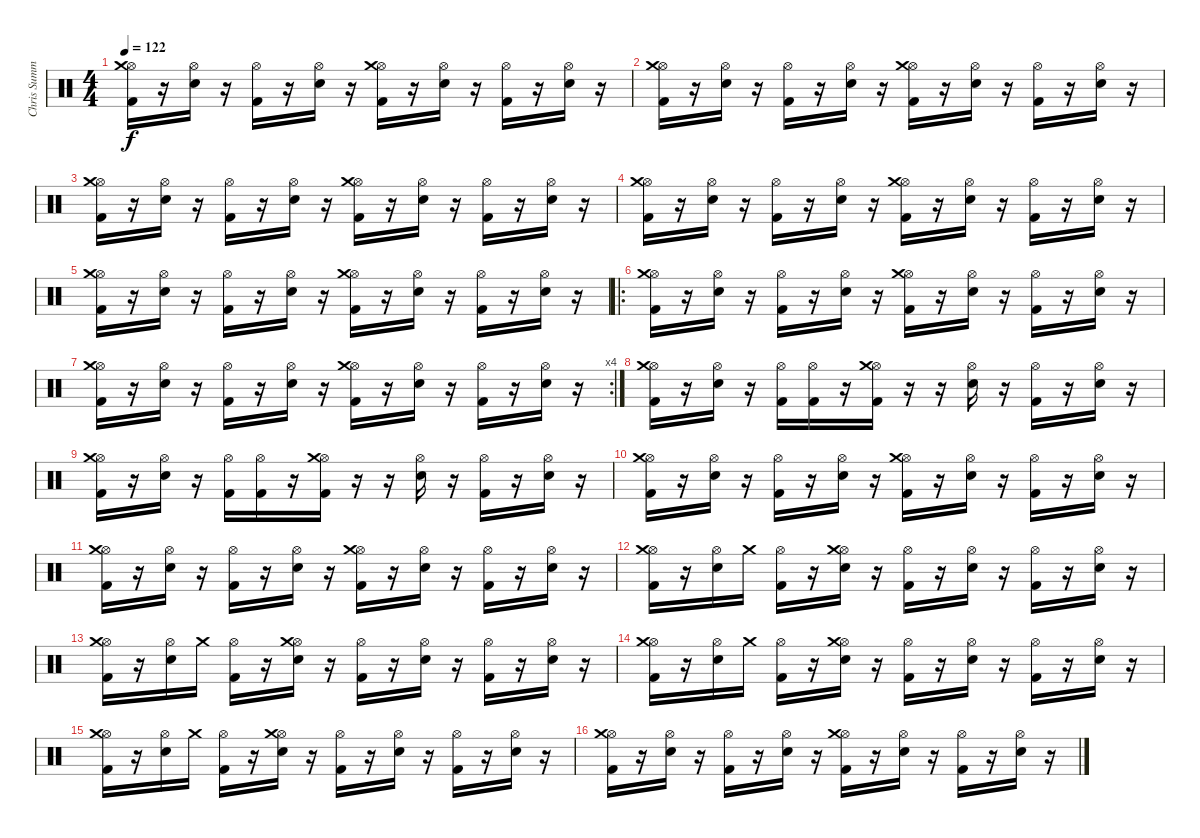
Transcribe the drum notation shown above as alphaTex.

\track ("Chris Summers" "Chris Summ") {instrument percussion}
\staff {score}
\articulation defaults
\ts (4 4)
\tempo 122
\clef neutral
\ks c
("Kick (hit) 2" "Hi-Hat (open)" "Crash medium (hit)").16{dy f} r.16 ("Electric Snare (hit)" "Hi-Hat (open)").16 r.16 ("Kick (hit) 2" "Hi-Hat (open)").16 r.16 ("Electric Snare (hit)" "Hi-Hat (open)").16 r.16 ("Kick (hit) 2" "Hi-Hat (open)" "Crash medium (hit)").16 r.16 ("Electric Snare (hit)" "Hi-Hat (open)").16 r.16 ("Kick (hit) 2" "Hi-Hat (open)").16 r.16 ("Electric Snare (hit)" "Hi-Hat (open)").16 r.16 |
("Kick (hit) 2" "Hi-Hat (open)" "Crash medium (hit)").16 r.16 ("Electric Snare (hit)" "Hi-Hat (open)").16 r.16 ("Kick (hit) 2" "Hi-Hat (open)").16 r.16 ("Electric Snare (hit)" "Hi-Hat (open)").16 r.16 ("Kick (hit) 2" "Hi-Hat (open)" "Crash medium (hit)").16 r.16 ("Electric Snare (hit)" "Hi-Hat (open)").16 r.16 ("Kick (hit) 2" "Hi-Hat (open)").16 r.16 ("Electric Snare (hit)" "Hi-Hat (open)").16 r.16 |
("Kick (hit) 2" "Hi-Hat (open)" "Crash medium (hit)").16 r.16 ("Electric Snare (hit)" "Hi-Hat (open)").16 r.16 ("Kick (hit) 2" "Hi-Hat (open)").16 r.16 ("Electric Snare (hit)" "Hi-Hat (open)").16 r.16 ("Kick (hit) 2" "Hi-Hat (open)" "Crash medium (hit)").16 r.16 ("Electric Snare (hit)" "Hi-Hat (open)").16 r.16 ("Kick (hit) 2" "Hi-Hat (open)").16 r.16 ("Electric Snare (hit)" "Hi-Hat (open)").16 r.16 |
("Kick (hit) 2" "Hi-Hat (open)" "Crash medium (hit)").16 r.16 ("Electric Snare (hit)" "Hi-Hat (open)").16 r.16 ("Kick (hit) 2" "Hi-Hat (open)").16 r.16 ("Electric Snare (hit)" "Hi-Hat (open)").16 r.16 ("Kick (hit) 2" "Hi-Hat (open)" "Crash medium (hit)").16 r.16 ("Electric Snare (hit)" "Hi-Hat (open)").16 r.16 ("Kick (hit) 2" "Hi-Hat (open)").16 r.16 ("Electric Snare (hit)" "Hi-Hat (open)").16 r.16 |
("Kick (hit) 2" "Hi-Hat (open)" "Crash medium (hit)").16 r.16 ("Electric Snare (hit)" "Hi-Hat (open)").16 r.16 ("Kick (hit) 2" "Hi-Hat (open)").16 r.16 ("Electric Snare (hit)" "Hi-Hat (open)").16 r.16 ("Kick (hit) 2" "Hi-Hat (open)" "Crash medium (hit)").16 r.16 ("Electric Snare (hit)" "Hi-Hat (open)").16 r.16 ("Kick (hit) 2" "Hi-Hat (open)").16 r.16 ("Electric Snare (hit)" "Hi-Hat (open)").16 r.16 |
\ro
("Kick (hit) 2" "Hi-Hat (open)" "Crash medium (hit)").16 r.16 ("Electric Snare (hit)" "Hi-Hat (open)").16 r.16 ("Kick (hit) 2" "Hi-Hat (open)").16 r.16 ("Electric Snare (hit)" "Hi-Hat (open)").16 r.16 ("Kick (hit) 2" "Hi-Hat (open)" "Crash medium (hit)").16 r.16 ("Electric Snare (hit)" "Hi-Hat (open)").16 r.16 ("Kick (hit) 2" "Hi-Hat (open)").16 r.16 ("Electric Snare (hit)" "Hi-Hat (open)").16 r.16 |
\rc 4
("Kick (hit) 2" "Hi-Hat (open)" "Crash medium (hit)").16 r.16 ("Electric Snare (hit)" "Hi-Hat (open)").16 r.16 ("Kick (hit) 2" "Hi-Hat (open)").16 r.16 ("Electric Snare (hit)" "Hi-Hat (open)").16 r.16 ("Kick (hit) 2" "Hi-Hat (open)" "Crash medium (hit)").16 r.16 ("Electric Snare (hit)" "Hi-Hat (open)").16 r.16 ("Kick (hit) 2" "Hi-Hat (open)").16 r.16 ("Electric Snare (hit)" "Hi-Hat (open)").16 r.16 |
("Kick (hit) 2" "Hi-Hat (open)" "Crash medium (hit)").16 r.16 ("Electric Snare (hit)" "Hi-Hat (open)").16 r.16 ("Kick (hit) 2" "Hi-Hat (open)").16 ("Kick (hit) 2" "Hi-Hat (open)").16 r.16 ("Kick (hit) 2" "Hi-Hat (open)" "Crash medium (hit)").16 r.16 r.16 ("Electric Snare (hit)" "Hi-Hat (open)").16 r.16 ("Kick (hit) 2" "Hi-Hat (open)").16 r.16 ("Electric Snare (hit)" "Hi-Hat (open)").16 r.16 |
("Kick (hit) 2" "Hi-Hat (open)" "Crash medium (hit)").16 r.16 ("Electric Snare (hit)" "Hi-Hat (open)").16 r.16 ("Kick (hit) 2" "Hi-Hat (open)").16 ("Kick (hit) 2" "Hi-Hat (open)").16 r.16 ("Kick (hit) 2" "Hi-Hat (open)" "Crash medium (hit)").16 r.16 r.16 ("Electric Snare (hit)" "Hi-Hat (open)").16 r.16 ("Kick (hit) 2" "Hi-Hat (open)").16 r.16 ("Electric Snare (hit)" "Hi-Hat (open)").16 r.16 |
("Kick (hit) 2" "Hi-Hat (open)" "Crash medium (hit)").16 r.16 ("Electric Snare (hit)" "Hi-Hat (open)").16 r.16 ("Kick (hit) 2" "Hi-Hat (open)").16 r.16 ("Electric Snare (hit)" "Hi-Hat (open)").16 r.16 ("Kick (hit) 2" "Hi-Hat (open)" "Crash medium (hit)").16 r.16 ("Electric Snare (hit)" "Hi-Hat (open)").16 r.16 ("Kick (hit) 2" "Hi-Hat (open)").16 r.16 ("Electric Snare (hit)" "Hi-Hat (open)").16 r.16 |
("Kick (hit) 2" "Hi-Hat (open)" "Crash medium (hit)").16 r.16 ("Electric Snare (hit)" "Hi-Hat (open)").16 r.16 ("Kick (hit) 2" "Hi-Hat (open)").16 r.16 ("Electric Snare (hit)" "Hi-Hat (open)").16 r.16 ("Kick (hit) 2" "Hi-Hat (open)" "Crash medium (hit)").16 r.16 ("Electric Snare (hit)" "Hi-Hat (open)").16 r.16 ("Kick (hit) 2" "Hi-Hat (open)").16 r.16 ("Electric Snare (hit)" "Hi-Hat (open)").16 r.16 |
("Kick (hit) 2" "Hi-Hat (open)" "Crash medium (hit)").16 r.16 ("Electric Snare (hit)" "Hi-Hat (open)").16 "Crash medium (hit)".16 ("Kick (hit) 2" "Hi-Hat (open)").16 r.16 ("Electric Snare (hit)" "Hi-Hat (open)" "Crash medium (hit)").16 r.16 ("Kick (hit) 2" "Hi-Hat (open)").16 r.16 ("Electric Snare (hit)" "Hi-Hat (open)").16 r.16 ("Kick (hit) 2" "Hi-Hat (open)").16 r.16 ("Electric Snare (hit)" "Hi-Hat (open)").16 r.16 |
("Kick (hit) 2" "Hi-Hat (open)" "Crash medium (hit)").16 r.16 ("Electric Snare (hit)" "Hi-Hat (open)").16 "Crash medium (hit)".16 ("Kick (hit) 2" "Hi-Hat (open)").16 r.16 ("Electric Snare (hit)" "Hi-Hat (open)" "Crash medium (hit)").16 r.16 ("Kick (hit) 2" "Hi-Hat (open)").16 r.16 ("Electric Snare (hit)" "Hi-Hat (open)").16 r.16 ("Kick (hit) 2" "Hi-Hat (open)").16 r.16 ("Electric Snare (hit)" "Hi-Hat (open)").16 r.16 |
("Kick (hit) 2" "Hi-Hat (open)" "Crash medium (hit)").16 r.16 ("Electric Snare (hit)" "Hi-Hat (open)").16 "Crash medium (hit)".16 ("Kick (hit) 2" "Hi-Hat (open)").16 r.16 ("Electric Snare (hit)" "Hi-Hat (open)" "Crash medium (hit)").16 r.16 ("Kick (hit) 2" "Hi-Hat (open)").16 r.16 ("Electric Snare (hit)" "Hi-Hat (open)").16 r.16 ("Kick (hit) 2" "Hi-Hat (open)").16 r.16 ("Electric Snare (hit)" "Hi-Hat (open)").16 r.16 |
("Kick (hit) 2" "Hi-Hat (open)" "Crash medium (hit)").16 r.16 ("Electric Snare (hit)" "Hi-Hat (open)").16 "Crash medium (hit)".16 ("Kick (hit) 2" "Hi-Hat (open)").16 r.16 ("Electric Snare (hit)" "Hi-Hat (open)" "Crash medium (hit)").16 r.16 ("Kick (hit) 2" "Hi-Hat (open)").16 r.16 ("Electric Snare (hit)" "Hi-Hat (open)").16 r.16 ("Kick (hit) 2" "Hi-Hat (open)").16 r.16 ("Electric Snare (hit)" "Hi-Hat (open)").16 r.16 |
("Kick (hit) 2" "Hi-Hat (open)" "Crash medium (hit)").16 r.16 ("Electric Snare (hit)" "Hi-Hat (open)").16 r.16 ("Kick (hit) 2" "Hi-Hat (open)").16 r.16 ("Electric Snare (hit)" "Hi-Hat (open)").16 r.16 ("Kick (hit) 2" "Hi-Hat (open)" "Crash medium (hit)").16 r.16 ("Electric Snare (hit)" "Hi-Hat (open)").16 r.16 ("Kick (hit) 2" "Hi-Hat (open)").16 r.16 ("Electric Snare (hit)" "Hi-Hat (open)").16 r.16
